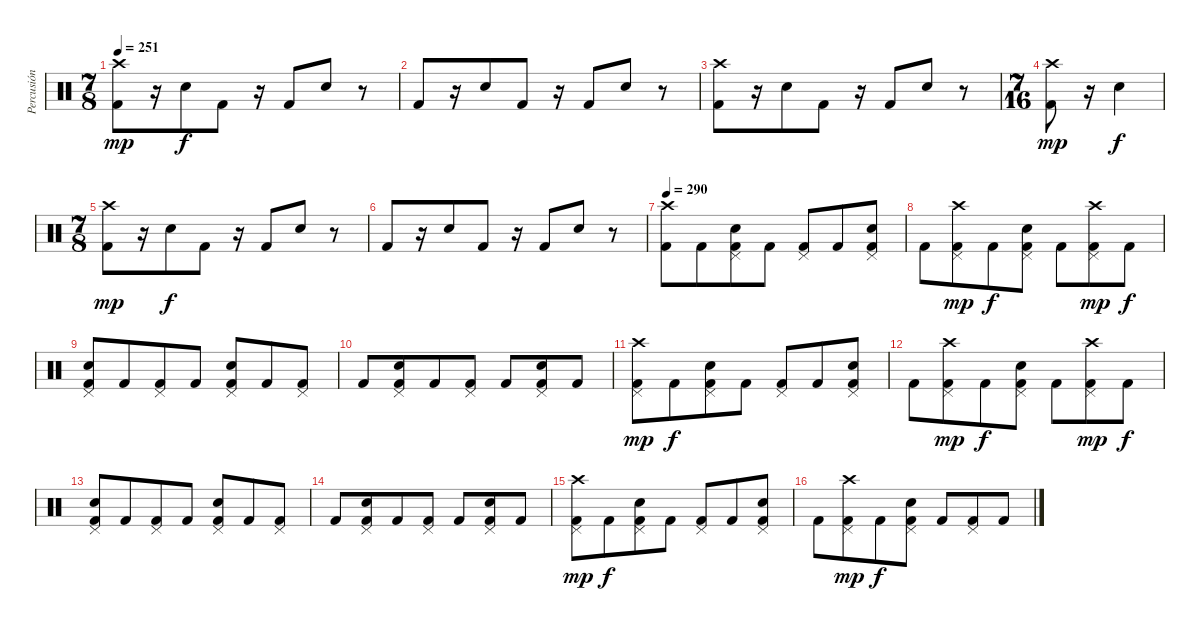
\track ("Percusión" "Percusión") {instrument percussion}
\staff {score}
\articulation defaults
\ts (7 8)
\tempo 251
\clef neutral
\ks c
("Crash high (hit)" "Kick (hit) 2").8{dy mp} r.16 "Snare (hit) 2".8{dy f} "Kick (hit) 2".8 r.16 "Kick (hit) 2".8 "Snare (hit) 2".8 r.8 |
"Kick (hit) 2".8 r.16 "Snare (hit) 2".8 "Kick (hit) 2".8 r.16 "Kick (hit) 2".8 "Snare (hit) 2".8 r.8 |
("Crash high (hit)" "Kick (hit) 2").8 r.16 "Snare (hit) 2".8 "Kick (hit) 2".8 r.16 "Kick (hit) 2".8 "Snare (hit) 2".8 r.8 |
\ts (7 16)
("Crash high (hit)" "Kick (hit) 2").8{dy mp} r.16 "Snare (hit) 2".4{dy f} |
\ts (7 8)
("Crash high (hit)" "Kick (hit) 2").8{dy mp} r.16 "Snare (hit) 2".8{dy f} "Kick (hit) 2".8 r.16 "Kick (hit) 2".8 "Snare (hit) 2".8 r.8 |
"Kick (hit) 2".8 r.16 "Snare (hit) 2".8 "Kick (hit) 2".8 r.16 "Kick (hit) 2".8 "Snare (hit) 2".8 r.8 |
\tempo 290
("Crash high (hit)" "Kick (hit) 2").8 "Kick (hit) 2".8 ("Pedal Hi-Hat (hit)" "Snare (hit) 2" "Kick (hit) 2").8 "Kick (hit) 2".8 ("Pedal Hi-Hat (hit)" "Kick (hit) 2").8 "Kick (hit) 2".8 ("Pedal Hi-Hat (hit)" "Snare (hit) 2" "Kick (hit) 2").8 |
"Kick (hit) 2".8 ("Crash high (hit)" "Pedal Hi-Hat (hit)" "Kick (hit) 2").8{dy mp} "Kick (hit) 2".8{dy f} ("Pedal Hi-Hat (hit)" "Snare (hit) 2" "Kick (hit) 2").8 "Kick (hit) 2".8 ("Crash high (hit)" "Pedal Hi-Hat (hit)" "Kick (hit) 2").8{dy mp} "Kick (hit) 2".8{dy f} |
("Pedal Hi-Hat (hit)" "Snare (hit) 2" "Kick (hit) 2").8 "Kick (hit) 2".8 ("Pedal Hi-Hat (hit)" "Kick (hit) 2").8 "Kick (hit) 2".8 ("Pedal Hi-Hat (hit)" "Snare (hit) 2" "Kick (hit) 2").8 "Kick (hit) 2".8 ("Pedal Hi-Hat (hit)" "Kick (hit) 2").8 |
"Kick (hit) 2".8 ("Pedal Hi-Hat (hit)" "Snare (hit) 2" "Kick (hit) 2").8 "Kick (hit) 2".8 ("Pedal Hi-Hat (hit)" "Kick (hit) 2").8 "Kick (hit) 2".8 ("Pedal Hi-Hat (hit)" "Snare (hit) 2" "Kick (hit) 2").8 "Kick (hit) 2".8 |
("Crash high (hit)" "Pedal Hi-Hat (hit)" "Kick (hit) 2").8{dy mp} "Kick (hit) 2".8{dy f} ("Pedal Hi-Hat (hit)" "Snare (hit) 2" "Kick (hit) 2").8 "Kick (hit) 2".8 ("Pedal Hi-Hat (hit)" "Kick (hit) 2").8 "Kick (hit) 2".8 ("Pedal Hi-Hat (hit)" "Snare (hit) 2" "Kick (hit) 2").8 |
"Kick (hit) 2".8 ("Crash high (hit)" "Pedal Hi-Hat (hit)" "Kick (hit) 2").8{dy mp} "Kick (hit) 2".8{dy f} ("Pedal Hi-Hat (hit)" "Snare (hit) 2" "Kick (hit) 2").8 "Kick (hit) 2".8 ("Crash high (hit)" "Pedal Hi-Hat (hit)" "Kick (hit) 2").8{dy mp} "Kick (hit) 2".8{dy f} |
("Pedal Hi-Hat (hit)" "Snare (hit) 2" "Kick (hit) 2").8 "Kick (hit) 2".8 ("Pedal Hi-Hat (hit)" "Kick (hit) 2").8 "Kick (hit) 2".8 ("Pedal Hi-Hat (hit)" "Snare (hit) 2" "Kick (hit) 2").8 "Kick (hit) 2".8 ("Pedal Hi-Hat (hit)" "Kick (hit) 2").8 |
"Kick (hit) 2".8 ("Pedal Hi-Hat (hit)" "Snare (hit) 2" "Kick (hit) 2").8 "Kick (hit) 2".8 ("Pedal Hi-Hat (hit)" "Kick (hit) 2").8 "Kick (hit) 2".8 ("Pedal Hi-Hat (hit)" "Snare (hit) 2" "Kick (hit) 2").8 "Kick (hit) 2".8 |
("Crash high (hit)" "Pedal Hi-Hat (hit)" "Kick (hit) 2").8{dy mp} "Kick (hit) 2".8{dy f} ("Pedal Hi-Hat (hit)" "Snare (hit) 2" "Kick (hit) 2").8 "Kick (hit) 2".8 ("Pedal Hi-Hat (hit)" "Kick (hit) 2").8 "Kick (hit) 2".8 ("Pedal Hi-Hat (hit)" "Snare (hit) 2" "Kick (hit) 2").8 |
"Kick (hit) 2".8 ("Crash high (hit)" "Pedal Hi-Hat (hit)" "Kick (hit) 2").8{dy mp} "Kick (hit) 2".8{dy f} ("Pedal Hi-Hat (hit)" "Snare (hit) 2" "Kick (hit) 2").8 "Kick (hit) 2".8 ("Pedal Hi-Hat (hit)" "Kick (hit) 2").8 "Kick (hit) 2".8
